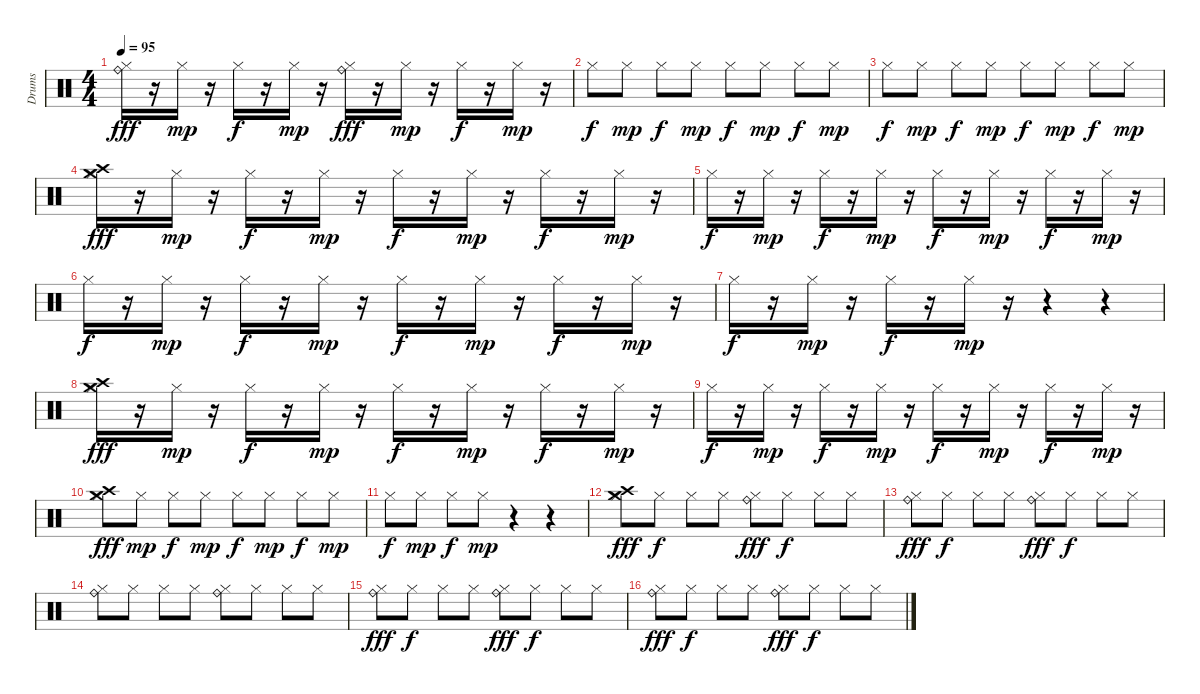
\bracketExtendMode groupsimilarinstruments
\otherSystemsTrackNameOrientation horizontal
\track ("Drumkit" "Drums") {instrument percussion}
\staff {score}
\articulation defaults
\ts (4 4)
\tempo 95
\clef neutral
\ks c
("Ride (bell)" "Hi-Hat (closed)").16{dy fff} r.16 "Hi-Hat (closed)".16{dy mp} r.16 "Hi-Hat (closed)".16{dy f} r.16 "Hi-Hat (closed)".16{dy mp} r.16 ("Ride (bell)" "Hi-Hat (closed)").16{dy fff} r.16 "Hi-Hat (closed)".16{dy mp} r.16 "Hi-Hat (closed)".16{dy f} r.16 "Hi-Hat (closed)".16{dy mp} r.16 |
"Hi-Hat (closed)".8{dy f} "Hi-Hat (closed)".8{dy mp} "Hi-Hat (closed)".8{dy f} "Hi-Hat (closed)".8{dy mp} "Hi-Hat (closed)".8{dy f} "Hi-Hat (closed)".8{dy mp} "Hi-Hat (closed)".8{dy f} "Hi-Hat (closed)".8{dy mp} |
"Hi-Hat (closed)".8{dy f} "Hi-Hat (closed)".8{dy mp} "Hi-Hat (closed)".8{dy f} "Hi-Hat (closed)".8{dy mp} "Hi-Hat (closed)".8{dy f} "Hi-Hat (closed)".8{dy mp} "Hi-Hat (closed)".8{dy f} "Hi-Hat (closed)".8{dy mp} |
("Crash medium (hit)" "Crash high (hit)" "Hi-Hat (closed)").16{dy fff} r.16 "Hi-Hat (closed)".16{dy mp} r.16 "Hi-Hat (closed)".16{dy f} r.16 "Hi-Hat (closed)".16{dy mp} r.16 "Hi-Hat (closed)".16{dy f} r.16 "Hi-Hat (closed)".16{dy mp} r.16 "Hi-Hat (closed)".16{dy f} r.16 "Hi-Hat (closed)".16{dy mp} r.16 |
"Hi-Hat (closed)".16{dy f} r.16 "Hi-Hat (closed)".16{dy mp} r.16 "Hi-Hat (closed)".16{dy f} r.16 "Hi-Hat (closed)".16{dy mp} r.16 "Hi-Hat (closed)".16{dy f} r.16 "Hi-Hat (closed)".16{dy mp} r.16 "Hi-Hat (closed)".16{dy f} r.16 "Hi-Hat (closed)".16{dy mp} r.16 |
"Hi-Hat (closed)".16{dy f} r.16 "Hi-Hat (closed)".16{dy mp} r.16 "Hi-Hat (closed)".16{dy f} r.16 "Hi-Hat (closed)".16{dy mp} r.16 "Hi-Hat (closed)".16{dy f} r.16 "Hi-Hat (closed)".16{dy mp} r.16 "Hi-Hat (closed)".16{dy f} r.16 "Hi-Hat (closed)".16{dy mp} r.16 |
"Hi-Hat (closed)".16{dy f} r.16 "Hi-Hat (closed)".16{dy mp} r.16 "Hi-Hat (closed)".16{dy f} r.16 "Hi-Hat (closed)".16{dy mp} r.16 r.4 r.4 |
("Crash medium (hit)" "Crash high (hit)" "Hi-Hat (closed)").16{dy fff} r.16 "Hi-Hat (closed)".16{dy mp} r.16 "Hi-Hat (closed)".16{dy f} r.16 "Hi-Hat (closed)".16{dy mp} r.16 "Hi-Hat (closed)".16{dy f} r.16 "Hi-Hat (closed)".16{dy mp} r.16 "Hi-Hat (closed)".16{dy f} r.16 "Hi-Hat (closed)".16{dy mp} r.16 |
"Hi-Hat (closed)".16{dy f} r.16 "Hi-Hat (closed)".16{dy mp} r.16 "Hi-Hat (closed)".16{dy f} r.16 "Hi-Hat (closed)".16{dy mp} r.16 "Hi-Hat (closed)".16{dy f} r.16 "Hi-Hat (closed)".16{dy mp} r.16 "Hi-Hat (closed)".16{dy f} r.16 "Hi-Hat (closed)".16{dy mp} r.16 |
("Crash medium (hit)" "Crash high (hit)" "Hi-Hat (closed)").8{dy fff} "Hi-Hat (closed)".8{dy mp} "Hi-Hat (closed)".8{dy f} "Hi-Hat (closed)".8{dy mp} "Hi-Hat (closed)".8{dy f} "Hi-Hat (closed)".8{dy mp} "Hi-Hat (closed)".8{dy f} "Hi-Hat (closed)".8{dy mp} |
"Hi-Hat (closed)".8{dy f} "Hi-Hat (closed)".8{dy mp} "Hi-Hat (closed)".8{dy f} "Hi-Hat (closed)".8{dy mp} r.4 r.4 |
("Crash medium (hit)" "Crash high (hit)" "Hi-Hat (closed)").8{dy fff} "Hi-Hat (closed)".8{dy f} "Hi-Hat (closed)".8 "Hi-Hat (closed)".8 ("Ride (bell)" "Hi-Hat (closed)").8{dy fff} "Hi-Hat (closed)".8{dy f} "Hi-Hat (closed)".8 "Hi-Hat (closed)".8 |
("Ride (bell)" "Hi-Hat (closed)").8{dy fff} "Hi-Hat (closed)".8{dy f} "Hi-Hat (closed)".8 "Hi-Hat (closed)".8 ("Ride (bell)" "Hi-Hat (closed)").8{dy fff} "Hi-Hat (closed)".8{dy f} "Hi-Hat (closed)".8 "Hi-Hat (closed)".8 |
("Ride (bell)" "Hi-Hat (closed)").8 "Hi-Hat (closed)".8 "Hi-Hat (closed)".8 "Hi-Hat (closed)".8 ("Ride (bell)" "Hi-Hat (closed)").8 "Hi-Hat (closed)".8 "Hi-Hat (closed)".8 "Hi-Hat (closed)".8 |
("Ride (bell)" "Hi-Hat (closed)").8{dy fff} "Hi-Hat (closed)".8{dy f} "Hi-Hat (closed)".8 "Hi-Hat (closed)".8 ("Ride (bell)" "Hi-Hat (closed)").8{dy fff} "Hi-Hat (closed)".8{dy f} "Hi-Hat (closed)".8 "Hi-Hat (closed)".8 |
("Ride (bell)" "Hi-Hat (closed)").8{dy fff} "Hi-Hat (closed)".8{dy f} "Hi-Hat (closed)".8 "Hi-Hat (closed)".8 ("Ride (bell)" "Hi-Hat (closed)").8{dy fff} "Hi-Hat (closed)".8{dy f} "Hi-Hat (closed)".8 "Hi-Hat (closed)".8
